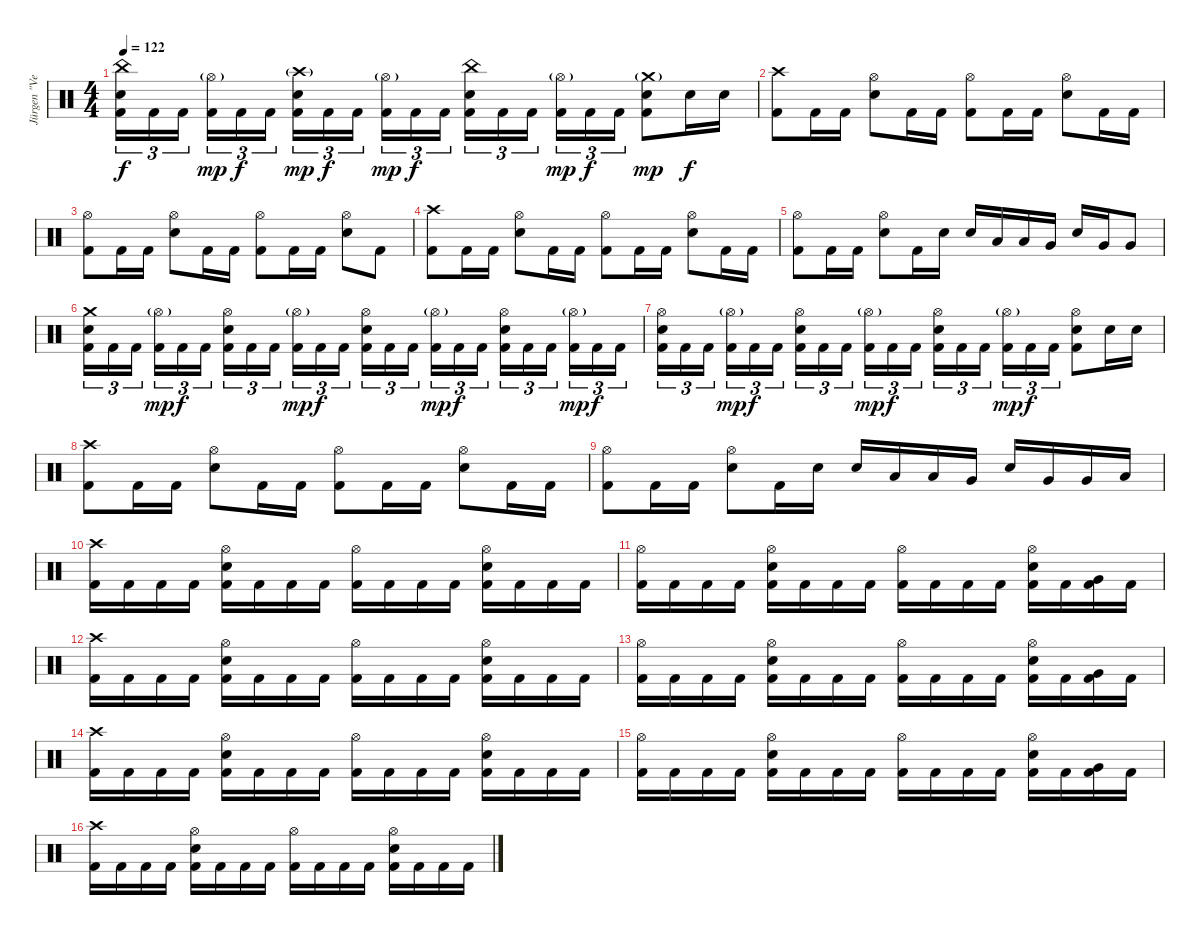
\track ("Jürgen \"Ventor\" Reil Drums" "Jürgen \"Ve") {instrument percussion}
\staff {score}
\articulation defaults
\ts (4 4)
\tempo 122
\clef neutral
\ks c
("China (hit)" "Snare (hit) 2" "Kick (hit) 2").16{tu (3 2) dy f} "Kick (hit) 2".16{tu (3 2)} "Kick (hit) 2".16{tu (3 2)} ("Hi-Hat (open)"{g} "Kick (hit) 2").16{tu (3 2) dy mp} "Kick (hit) 2".16{tu (3 2) dy f} "Kick (hit) 2".16{tu (3 2)} ("Crash high (hit)"{g} "Snare (hit) 2" "Kick (hit) 2").16{tu (3 2) dy mp} "Kick (hit) 2".16{tu (3 2) dy f} "Kick (hit) 2".16{tu (3 2)} ("Hi-Hat (open)"{g} "Kick (hit) 2").16{tu (3 2) dy mp} "Kick (hit) 2".16{tu (3 2) dy f} "Kick (hit) 2".16{tu (3 2)} ("China (hit)" "Snare (hit) 2" "Kick (hit) 2").16{tu (3 2)} "Kick (hit) 2".16{tu (3 2)} "Kick (hit) 2".16{tu (3 2)} ("Hi-Hat (open)"{g} "Kick (hit) 2").16{tu (3 2) dy mp} "Kick (hit) 2".16{tu (3 2) dy f} "Kick (hit) 2".16{tu (3 2)} ("Crash medium (hit)"{g} "Snare (hit) 2" "Kick (hit) 2").8{dy mp} "Snare (hit) 2".16{dy f} "Snare (hit) 2".16 |
("Crash high (hit)" "Kick (hit) 2").8 "Kick (hit) 2".16 "Kick (hit) 2".16 ("Hi-Hat (open)" "Snare (hit) 2").8 "Kick (hit) 2".16 "Kick (hit) 2".16 ("Hi-Hat (open)" "Kick (hit) 2").8 "Kick (hit) 2".16 "Kick (hit) 2".16 ("Hi-Hat (open)" "Snare (hit) 2").8 "Kick (hit) 2".16 "Kick (hit) 2".16 |
("Hi-Hat (open)" "Kick (hit) 2").8 "Kick (hit) 2".16 "Kick (hit) 2".16 ("Hi-Hat (open)" "Snare (hit) 2").8 "Kick (hit) 2".16 "Kick (hit) 2".16 ("Hi-Hat (open)" "Kick (hit) 2").8 "Kick (hit) 2".16 "Kick (hit) 2".16 ("Hi-Hat (open)" "Snare (hit) 2").8 "Kick (hit) 2".8 |
("Crash high (hit)" "Kick (hit) 2").8 "Kick (hit) 2".16 "Kick (hit) 2".16 ("Hi-Hat (open)" "Snare (hit) 2").8 "Kick (hit) 2".16 "Kick (hit) 2".16 ("Hi-Hat (open)" "Kick (hit) 2").8 "Kick (hit) 2".16 "Kick (hit) 2".16 ("Hi-Hat (open)" "Snare (hit) 2").8 "Kick (hit) 2".16 "Kick (hit) 2".16 |
("Hi-Hat (open)" "Kick (hit) 2").8 "Kick (hit) 2".16 "Kick (hit) 2".16 ("Hi-Hat (open)" "Snare (hit) 2").8 "Kick (hit) 2".16 "Snare (hit) 2".16 "Snare (hit) 2".16 "Low Tom (hit)".16 "Low Tom (hit)".16 "Very Low Tom (hit)".16 "Snare (hit) 2".16 "Very Low Tom (hit)".16 "Very Low Tom (hit)".8 |
("Crash medium (hit)" "Snare (hit) 2" "Kick (hit) 2").16{tu (3 2)} "Kick (hit) 2".16{tu (3 2)} "Kick (hit) 2".16{tu (3 2)} ("Hi-Hat (open)"{g} "Kick (hit) 2").16{tu (3 2) dy mp} "Kick (hit) 2".16{tu (3 2) dy f} "Kick (hit) 2".16{tu (3 2)} ("Hi-Hat (open)" "Snare (hit) 2" "Kick (hit) 2").16{tu (3 2)} "Kick (hit) 2".16{tu (3 2)} "Kick (hit) 2".16{tu (3 2)} ("Hi-Hat (open)"{g} "Kick (hit) 2").16{tu (3 2) dy mp} "Kick (hit) 2".16{tu (3 2) dy f} "Kick (hit) 2".16{tu (3 2)} ("Hi-Hat (open)" "Snare (hit) 2" "Kick (hit) 2").16{tu (3 2)} "Kick (hit) 2".16{tu (3 2)} "Kick (hit) 2".16{tu (3 2)} ("Hi-Hat (open)"{g} "Kick (hit) 2").16{tu (3 2) dy mp} "Kick (hit) 2".16{tu (3 2) dy f} "Kick (hit) 2".16{tu (3 2)} ("Hi-Hat (open)" "Snare (hit) 2" "Kick (hit) 2").16{tu (3 2)} "Kick (hit) 2".16{tu (3 2)} "Kick (hit) 2".16{tu (3 2)} ("Hi-Hat (open)"{g} "Kick (hit) 2").16{tu (3 2) dy mp} "Kick (hit) 2".16{tu (3 2) dy f} "Kick (hit) 2".16{tu (3 2)} |
("Hi-Hat (open)" "Snare (hit) 2" "Kick (hit) 2").16{tu (3 2)} "Kick (hit) 2".16{tu (3 2)} "Kick (hit) 2".16{tu (3 2)} ("Hi-Hat (open)"{g} "Kick (hit) 2").16{tu (3 2) dy mp} "Kick (hit) 2".16{tu (3 2) dy f} "Kick (hit) 2".16{tu (3 2)} ("Hi-Hat (open)" "Snare (hit) 2" "Kick (hit) 2").16{tu (3 2)} "Kick (hit) 2".16{tu (3 2)} "Kick (hit) 2".16{tu (3 2)} ("Hi-Hat (open)"{g} "Kick (hit) 2").16{tu (3 2) dy mp} "Kick (hit) 2".16{tu (3 2) dy f} "Kick (hit) 2".16{tu (3 2)} ("Hi-Hat (open)" "Snare (hit) 2" "Kick (hit) 2").16{tu (3 2)} "Kick (hit) 2".16{tu (3 2)} "Kick (hit) 2".16{tu (3 2)} ("Hi-Hat (open)"{g} "Kick (hit) 2").16{tu (3 2) dy mp} "Kick (hit) 2".16{tu (3 2) dy f} "Kick (hit) 2".16{tu (3 2)} ("Hi-Hat (open)" "Snare (hit) 2" "Kick (hit) 2").8 "Snare (hit) 2".16 "Snare (hit) 2".16 |
("Crash high (hit)" "Kick (hit) 2").8 "Kick (hit) 2".16 "Kick (hit) 2".16 ("Hi-Hat (open)" "Snare (hit) 2").8 "Kick (hit) 2".16 "Kick (hit) 2".16 ("Hi-Hat (open)" "Kick (hit) 2").8 "Kick (hit) 2".16 "Kick (hit) 2".16 ("Hi-Hat (open)" "Snare (hit) 2").8 "Kick (hit) 2".16 "Kick (hit) 2".16 |
("Hi-Hat (open)" "Kick (hit) 2").8 "Kick (hit) 2".16 "Kick (hit) 2".16 ("Hi-Hat (open)" "Snare (hit) 2").8 "Kick (hit) 2".16 "Snare (hit) 2".16 "Snare (hit) 2".16 "Low Tom (hit)".16 "Low Tom (hit)".16 "Very Low Tom (hit)".16 "Snare (hit) 2".16 "Very Low Tom (hit)".16 "Very Low Tom (hit)".16 "Low Floor Tom (hit)".16 |
("Crash high (hit)" "Kick (hit) 2").16 "Kick (hit) 2".16 "Kick (hit) 2".16 "Kick (hit) 2".16 ("Snare (hit) 2" "Hi-Hat (open)" "Kick (hit) 2").16 "Kick (hit) 2".16 "Kick (hit) 2".16 "Kick (hit) 2".16 ("Hi-Hat (open)" "Kick (hit) 2").16 "Kick (hit) 2".16 "Kick (hit) 2".16 "Kick (hit) 2".16 ("Snare (hit) 2" "Hi-Hat (open)" "Kick (hit) 2").16 "Kick (hit) 2".16 "Kick (hit) 2".16 "Kick (hit) 2".16 |
("Hi-Hat (open)" "Kick (hit) 2").16 "Kick (hit) 2".16 "Kick (hit) 2".16 "Kick (hit) 2".16 ("Snare (hit) 2" "Hi-Hat (open)" "Kick (hit) 2").16 "Kick (hit) 2".16 "Kick (hit) 2".16 "Kick (hit) 2".16 ("Hi-Hat (open)" "Kick (hit) 2").16 "Kick (hit) 2".16 "Kick (hit) 2".16 "Kick (hit) 2".16 ("Hi-Hat (open)" "Snare (hit) 2" "Kick (hit) 2").16 "Kick (hit) 2".16 ("Very Low Tom (hit)" "Kick (hit) 2").16 "Kick (hit) 2".16 |
("Crash high (hit)" "Kick (hit) 2").16 "Kick (hit) 2".16 "Kick (hit) 2".16 "Kick (hit) 2".16 ("Snare (hit) 2" "Hi-Hat (open)" "Kick (hit) 2").16 "Kick (hit) 2".16 "Kick (hit) 2".16 "Kick (hit) 2".16 ("Hi-Hat (open)" "Kick (hit) 2").16 "Kick (hit) 2".16 "Kick (hit) 2".16 "Kick (hit) 2".16 ("Snare (hit) 2" "Hi-Hat (open)" "Kick (hit) 2").16 "Kick (hit) 2".16 "Kick (hit) 2".16 "Kick (hit) 2".16 |
("Hi-Hat (open)" "Kick (hit) 2").16 "Kick (hit) 2".16 "Kick (hit) 2".16 "Kick (hit) 2".16 ("Snare (hit) 2" "Hi-Hat (open)" "Kick (hit) 2").16 "Kick (hit) 2".16 "Kick (hit) 2".16 "Kick (hit) 2".16 ("Hi-Hat (open)" "Kick (hit) 2").16 "Kick (hit) 2".16 "Kick (hit) 2".16 "Kick (hit) 2".16 ("Hi-Hat (open)" "Snare (hit) 2" "Kick (hit) 2").16 "Kick (hit) 2".16 ("Very Low Tom (hit)" "Kick (hit) 2").16 "Kick (hit) 2".16 |
("Crash high (hit)" "Kick (hit) 2").16 "Kick (hit) 2".16 "Kick (hit) 2".16 "Kick (hit) 2".16 ("Snare (hit) 2" "Hi-Hat (open)" "Kick (hit) 2").16 "Kick (hit) 2".16 "Kick (hit) 2".16 "Kick (hit) 2".16 ("Hi-Hat (open)" "Kick (hit) 2").16 "Kick (hit) 2".16 "Kick (hit) 2".16 "Kick (hit) 2".16 ("Snare (hit) 2" "Hi-Hat (open)" "Kick (hit) 2").16 "Kick (hit) 2".16 "Kick (hit) 2".16 "Kick (hit) 2".16 |
("Hi-Hat (open)" "Kick (hit) 2").16 "Kick (hit) 2".16 "Kick (hit) 2".16 "Kick (hit) 2".16 ("Snare (hit) 2" "Hi-Hat (open)" "Kick (hit) 2").16 "Kick (hit) 2".16 "Kick (hit) 2".16 "Kick (hit) 2".16 ("Hi-Hat (open)" "Kick (hit) 2").16 "Kick (hit) 2".16 "Kick (hit) 2".16 "Kick (hit) 2".16 ("Hi-Hat (open)" "Snare (hit) 2" "Kick (hit) 2").16 "Kick (hit) 2".16 ("Very Low Tom (hit)" "Kick (hit) 2").16 "Kick (hit) 2".16 |
("Crash high (hit)" "Kick (hit) 2").16 "Kick (hit) 2".16 "Kick (hit) 2".16 "Kick (hit) 2".16 ("Snare (hit) 2" "Hi-Hat (open)" "Kick (hit) 2").16 "Kick (hit) 2".16 "Kick (hit) 2".16 "Kick (hit) 2".16 ("Hi-Hat (open)" "Kick (hit) 2").16 "Kick (hit) 2".16 "Kick (hit) 2".16 "Kick (hit) 2".16 ("Snare (hit) 2" "Hi-Hat (open)" "Kick (hit) 2").16 "Kick (hit) 2".16 "Kick (hit) 2".16 "Kick (hit) 2".16
